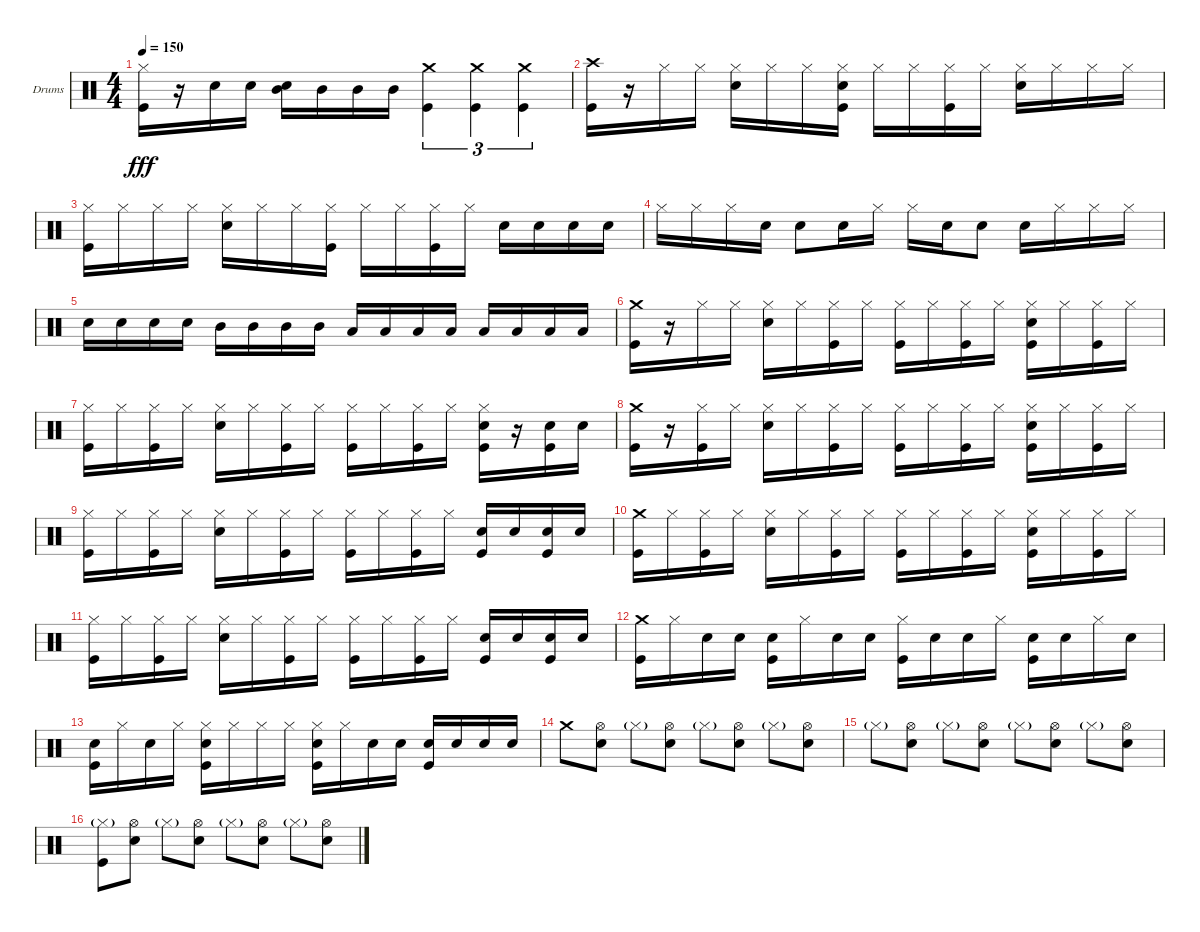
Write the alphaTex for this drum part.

\defaultSystemsLayout 4
\bracketExtendMode groupsimilarinstruments
\firstSystemTrackNameOrientation horizontal
\otherSystemsTrackNameOrientation horizontal
\track ("Matt Helders" "Drums") {instrument percussion}
\staff {score}
\articulation defaults
\ts (4 4)
\tempo 150
\clef neutral
\ks c
("Hi-Hat (closed)" "Kick (hit)").16{dy fff} r.16 "Snare (hit) 2".16 "Snare (hit) 2".16 ("Mid Tom (hit)" "Snare (hit) 2").16 "Mid Tom (hit)".16 "Mid Tom (hit)".16 "Mid Tom (hit)".16 ("Kick (hit)" "Crash medium (hit)").4{tu (3 2)} ("Kick (hit)" "Crash medium (hit)").4{tu (3 2)} ("Kick (hit)" "Crash medium (hit)").4{tu (3 2)} |
("Crash high (hit)" "Kick (hit)").16 r.16 "Hi-Hat (closed)".16 "Hi-Hat (closed)".16 ("Hi-Hat (closed)" "Snare (hit) 2").16 "Hi-Hat (closed)".16 "Hi-Hat (closed)".16 ("Hi-Hat (closed)" "Snare (hit) 2" "Kick (hit)").16 "Hi-Hat (closed)".16 "Hi-Hat (closed)".16 ("Hi-Hat (closed)" "Kick (hit)").16 "Hi-Hat (closed)".16 ("Hi-Hat (closed)" "Snare (hit) 2").16 "Hi-Hat (closed)".16 "Hi-Hat (closed)".16 "Hi-Hat (closed)".16 |
("Hi-Hat (closed)" "Kick (hit)").16 "Hi-Hat (closed)".16 "Hi-Hat (closed)".16 "Hi-Hat (closed)".16 ("Hi-Hat (closed)" "Snare (hit) 2").16 "Hi-Hat (closed)".16 "Hi-Hat (closed)".16 ("Hi-Hat (closed)" "Kick (hit)").16 "Hi-Hat (closed)".16 "Hi-Hat (closed)".16 ("Hi-Hat (closed)" "Kick (hit)").16 "Hi-Hat (closed)".16 "Snare (hit) 2".16 "Snare (hit) 2".16 "Snare (hit) 2".16 "Snare (hit) 2".16 |
"Hi-Hat (closed)".16 "Hi-Hat (closed)".16 "Hi-Hat (closed)".16 "Snare (hit) 2".16 "Snare (hit) 2".8 "Snare (hit) 2".16 "Hi-Hat (closed)".16 "Hi-Hat (closed)".16 "Snare (hit) 2".16 "Snare (hit) 2".8 "Snare (hit) 2".16 "Hi-Hat (closed)".16 "Hi-Hat (closed)".16 "Hi-Hat (closed)".16 |
"Snare (hit) 2".16 "Snare (hit) 2".16 "Snare (hit) 2".16 "Snare (hit) 2".16 "Mid Tom (hit)".16 "Mid Tom (hit)".16 "Mid Tom (hit)".16 "Mid Tom (hit)".16 "Low Tom (hit)".16 "Low Tom (hit)".16 "Low Tom (hit)".16 "Low Tom (hit)".16 "Low Tom (hit)".16 "Low Tom (hit)".16 "Low Tom (hit)".16 "Low Tom (hit)".16 |
("Crash medium (hit)" "Kick (hit)").16 r.16 "Hi-Hat (closed)".16 "Hi-Hat (closed)".16 ("Hi-Hat (closed)" "Snare (hit) 2").16 "Hi-Hat (closed)".16 ("Hi-Hat (closed)" "Kick (hit)").16 "Hi-Hat (closed)".16 ("Hi-Hat (closed)" "Kick (hit)").16 "Hi-Hat (closed)".16 ("Hi-Hat (closed)" "Kick (hit)").16 "Hi-Hat (closed)".16 ("Hi-Hat (closed)" "Snare (hit) 2" "Kick (hit)").16 "Hi-Hat (closed)".16 ("Hi-Hat (closed)" "Kick (hit)").16 "Hi-Hat (closed)".16 |
("Hi-Hat (closed)" "Kick (hit)").16 "Hi-Hat (closed)".16 ("Hi-Hat (closed)" "Kick (hit)").16 "Hi-Hat (closed)".16 ("Hi-Hat (closed)" "Snare (hit) 2").16 "Hi-Hat (closed)".16 ("Hi-Hat (closed)" "Kick (hit)").16 "Hi-Hat (closed)".16 ("Hi-Hat (closed)" "Kick (hit)").16 "Hi-Hat (closed)".16 ("Hi-Hat (closed)" "Kick (hit)").16 "Hi-Hat (closed)".16 ("Hi-Hat (closed)" "Snare (hit) 2" "Kick (hit)").16 r.16 ("Snare (hit) 2" "Kick (hit)").16 "Snare (hit) 2".16 |
("Crash medium (hit)" "Kick (hit)").16 r.16 ("Hi-Hat (closed)" "Kick (hit)").16 "Hi-Hat (closed)".16 ("Hi-Hat (closed)" "Snare (hit) 2").16 "Hi-Hat (closed)".16 ("Hi-Hat (closed)" "Kick (hit)").16 "Hi-Hat (closed)".16 ("Hi-Hat (closed)" "Kick (hit)").16 "Hi-Hat (closed)".16 ("Hi-Hat (closed)" "Kick (hit)").16 "Hi-Hat (closed)".16 ("Hi-Hat (closed)" "Snare (hit) 2" "Kick (hit)").16 "Hi-Hat (closed)".16 ("Hi-Hat (closed)" "Kick (hit)").16 "Hi-Hat (closed)".16 |
("Hi-Hat (closed)" "Kick (hit)").16 "Hi-Hat (closed)".16 ("Hi-Hat (closed)" "Kick (hit)").16 "Hi-Hat (closed)".16 ("Hi-Hat (closed)" "Snare (hit) 2").16 "Hi-Hat (closed)".16 ("Hi-Hat (closed)" "Kick (hit)").16 "Hi-Hat (closed)".16 ("Hi-Hat (closed)" "Kick (hit)").16 "Hi-Hat (closed)".16 ("Hi-Hat (closed)" "Kick (hit)").16 "Hi-Hat (closed)".16 ("Snare (hit) 2" "Kick (hit)").16 "Snare (hit) 2".16 ("Snare (hit) 2" "Kick (hit)").16 "Snare (hit) 2".16 |
("Crash medium (hit)" "Kick (hit)").16 "Hi-Hat (closed)".16 ("Hi-Hat (closed)" "Kick (hit)").16 "Hi-Hat (closed)".16 ("Hi-Hat (closed)" "Snare (hit) 2").16 "Hi-Hat (closed)".16 ("Hi-Hat (closed)" "Kick (hit)").16 "Hi-Hat (closed)".16 ("Hi-Hat (closed)" "Kick (hit)").16 "Hi-Hat (closed)".16 ("Hi-Hat (closed)" "Kick (hit)").16 "Hi-Hat (closed)".16 ("Hi-Hat (closed)" "Snare (hit) 2" "Kick (hit)").16 "Hi-Hat (closed)".16 ("Hi-Hat (closed)" "Kick (hit)").16 "Hi-Hat (closed)".16 |
("Hi-Hat (closed)" "Kick (hit)").16 "Hi-Hat (closed)".16 ("Hi-Hat (closed)" "Kick (hit)").16 "Hi-Hat (closed)".16 ("Hi-Hat (closed)" "Snare (hit) 2").16 "Hi-Hat (closed)".16 ("Hi-Hat (closed)" "Kick (hit)").16 "Hi-Hat (closed)".16 ("Hi-Hat (closed)" "Kick (hit)").16 "Hi-Hat (closed)".16 ("Hi-Hat (closed)" "Kick (hit)").16 "Hi-Hat (closed)".16 ("Snare (hit) 2" "Kick (hit)").16 "Snare (hit) 2".16 ("Snare (hit) 2" "Kick (hit)").16 "Snare (hit) 2".16 |
("Crash medium (hit)" "Kick (hit)").16 "Hi-Hat (closed)".16 "Snare (hit) 2".16 "Snare (hit) 2".16 ("Snare (hit) 2" "Kick (hit)").16 "Hi-Hat (closed)".16 "Snare (hit) 2".16 "Snare (hit) 2".16 ("Hi-Hat (closed)" "Kick (hit)").16 "Snare (hit) 2".16 "Snare (hit) 2".16 "Hi-Hat (closed)".16 ("Snare (hit) 2" "Kick (hit)").16 "Snare (hit) 2".16 "Hi-Hat (closed)".16 "Snare (hit) 2".16 |
("Snare (hit) 2" "Kick (hit)").16 "Hi-Hat (closed)".16 "Snare (hit) 2".16 "Hi-Hat (closed)".16 ("Hi-Hat (closed)" "Snare (hit) 2" "Kick (hit)").16 "Hi-Hat (closed)".16 "Hi-Hat (closed)".16 "Hi-Hat (closed)".16 ("Hi-Hat (closed)" "Snare (hit) 2" "Kick (hit)").16 "Hi-Hat (closed)".16 "Snare (hit) 2".16 "Snare (hit) 2".16 ("Snare (hit) 2" "Kick (hit)").16 "Snare (hit) 2".16 "Snare (hit) 2".16 "Snare (hit) 2".16 |
"Crash medium (hit)".8 ("Hi-Hat (open)" "Snare (hit) 2").8 "Hi-Hat (closed)"{g}.8 ("Hi-Hat (open)" "Snare (hit) 2").8 "Hi-Hat (closed)"{g}.8 ("Hi-Hat (open)" "Snare (hit) 2").8 "Hi-Hat (closed)"{g}.8 ("Hi-Hat (open)" "Snare (hit) 2").8 |
"Hi-Hat (closed)"{g}.8 ("Hi-Hat (open)" "Snare (hit) 2").8 "Hi-Hat (closed)"{g}.8 ("Hi-Hat (open)" "Snare (hit) 2").8 "Hi-Hat (closed)"{g}.8 ("Hi-Hat (open)" "Snare (hit) 2").8 "Hi-Hat (closed)"{g}.8 ("Hi-Hat (open)" "Snare (hit) 2").8 |
("Hi-Hat (closed)"{g} "Kick (hit)").8 ("Hi-Hat (open)" "Snare (hit) 2").8 "Hi-Hat (closed)"{g}.8 ("Hi-Hat (open)" "Snare (hit) 2").8 "Hi-Hat (closed)"{g}.8 ("Hi-Hat (open)" "Snare (hit) 2").8 "Hi-Hat (closed)"{g}.8 ("Hi-Hat (open)" "Snare (hit) 2").8
